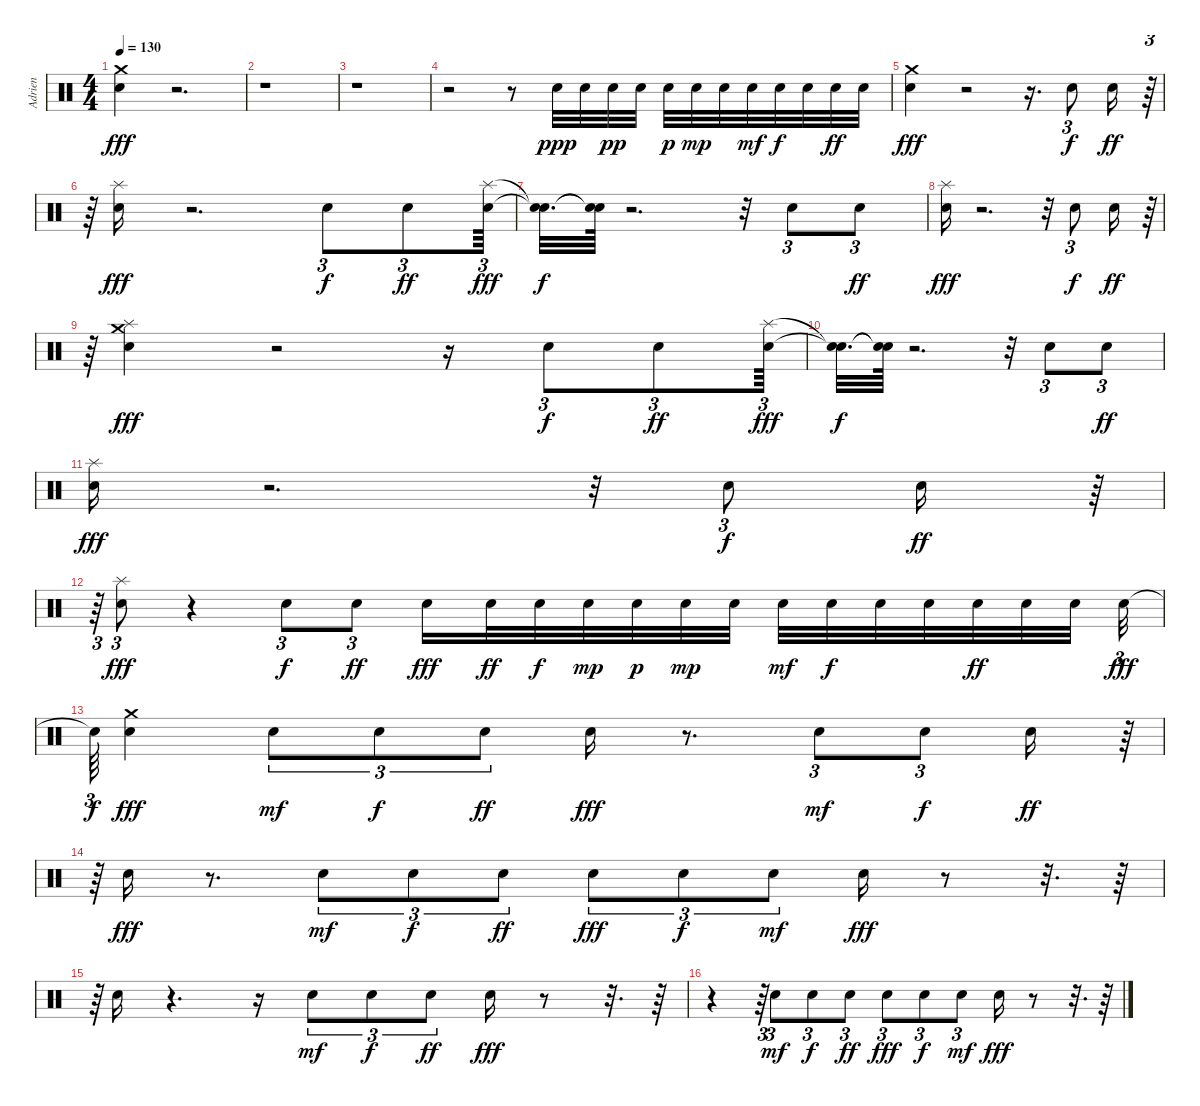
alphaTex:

\track ("Adrien" "Adrien") {instrument percussion}
\staff {score}
\articulation defaults
\ts (4 4)
\tempo 130
\clef neutral
\ks c
("Crash medium (hit)" "Snare (hit) 2").4{dy fff} r.2{d} |
r.1 |
r.1 |
r.2 r.8 "Snare (hit) 2".32{dy ppp} "Snare (hit) 2".32 "Snare (hit) 2".32{dy pp} "Snare (hit) 2".32 "Snare (hit) 2".32{dy p} "Snare (hit) 2".32{dy mp} "Snare (hit) 2".32 "Snare (hit) 2".32{dy mf} "Snare (hit) 2".32{dy f} "Snare (hit) 2".32 "Snare (hit) 2".32{dy ff} "Snare (hit) 2".32 |
("Crash medium (hit)" "Snare (hit) 2").4{dy fff} r.2 r.16{d} "Snare (hit) 2".8{tu (3 2) dy f} "Snare (hit) 2".16{dy ff} r.64{tu (3 2)} |
r.64{tu (3 2)} ("Snare (hit) 2" "Splash (hit)").16{dy fff} r.2{d} "Snare (hit) 2".8{tu (3 2) dy f} "Snare (hit) 2".8{tu (3 2) dy ff} ("Snare (hit) 2" "Splash (hit)").64{tu (3 2) dy fff} |
("Snare (hit)"{t} "Snare (hit)"{t}).32{d dy f} ("Snare (hit)"{t} "Snare (hit)"{t}).64 r.2{d} r.32 "Snare (hit) 2".8{tu (3 2)} "Snare (hit) 2".8{tu (3 2) dy ff} |
("Snare (hit) 2" "Splash (hit)").16{dy fff} r.2{d} r.32 "Snare (hit) 2".8{tu (3 2) dy f} "Snare (hit) 2".16{dy ff} r.64{tu (3 2)} |
r.64{tu (3 2)} ("Crash medium (hit)" "Snare (hit) 2" "Splash (hit)").4{dy fff} r.2 r.16 "Snare (hit) 2".8{tu (3 2) dy f} "Snare (hit) 2".8{tu (3 2) dy ff} ("Snare (hit) 2" "Splash (hit)").64{tu (3 2) dy fff} |
("Snare (hit)"{t} "Snare (hit)"{t}).32{d dy f} ("Snare (hit)"{t} "Snare (hit)"{t}).64 r.2{d} r.32 "Snare (hit) 2".8{tu (3 2)} "Snare (hit) 2".8{tu (3 2) dy ff} |
("Snare (hit) 2" "Splash (hit)").16{dy fff} r.2{d} r.32 "Snare (hit) 2".8{tu (3 2) dy f} "Snare (hit) 2".16{dy ff} r.64{tu (3 2)} |
r.64{tu (3 2)} ("Snare (hit) 2" "Splash (hit)").8{tu (3 2) dy fff} r.4 "Snare (hit) 2".8{tu (3 2) dy f} "Snare (hit) 2".8{tu (3 2) dy ff} "Snare (hit) 2".16{dy fff} "Snare (hit) 2".32{dy ff} "Snare (hit) 2".32{dy f} "Snare (hit) 2".32{dy mp} "Snare (hit) 2".32{dy p} "Snare (hit) 2".32{dy mp} "Snare (hit) 2".32 "Snare (hit) 2".32{dy mf} "Snare (hit) 2".32{dy f} "Snare (hit) 2".32 "Snare (hit) 2".32 "Snare (hit) 2".32{dy ff} "Snare (hit) 2".32 "Snare (hit) 2".32{beam splitsecondary} "Snare (hit) 2".32{tu (3 2) dy fff} |
"Snare (hit)"{t}.64{tu (3 2) dy f} ("Snare (hit) 2" "Crash medium (hit)").4{dy fff} "Snare (hit) 2".8{tu (3 2) dy mf} "Snare (hit) 2".8{tu (3 2) dy f} "Snare (hit) 2".8{tu (3 2) dy ff} "Snare (hit) 2".16{dy fff} r.8{d} "Snare (hit) 2".8{tu (3 2) dy mf} "Snare (hit) 2".8{tu (3 2) dy f} "Snare (hit) 2".16{dy ff} r.64{tu (3 2)} |
r.64{tu (3 2)} "Snare (hit) 2".16{dy fff} r.8{d} "Snare (hit) 2".8{tu (3 2) dy mf} "Snare (hit) 2".8{tu (3 2) dy f} "Snare (hit) 2".8{tu (3 2) dy ff} "Snare (hit) 2".8{tu (3 2) dy fff} "Snare (hit) 2".8{tu (3 2) dy f} "Snare (hit) 2".8{tu (3 2) dy mf} "Snare (hit) 2".16{dy fff} r.8 r.32{d} r.64 |
r.64{tu (3 2)} "Snare (hit) 2".16 r.4{d} r.16 "Snare (hit) 2".8{tu (3 2) dy mf} "Snare (hit) 2".8{tu (3 2) dy f} "Snare (hit) 2".8{tu (3 2) dy ff} "Snare (hit) 2".16{dy fff} r.8 r.32{d} r.64 |
r.4 r.64{tu (3 2)} "Snare (hit) 2".8{tu (3 2) dy mf} "Snare (hit) 2".8{tu (3 2) dy f} "Snare (hit) 2".8{tu (3 2) dy ff} "Snare (hit) 2".8{tu (3 2) dy fff} "Snare (hit) 2".8{tu (3 2) dy f} "Snare (hit) 2".8{tu (3 2) dy mf} "Snare (hit) 2".16{dy fff} r.8 r.32{d} r.64
